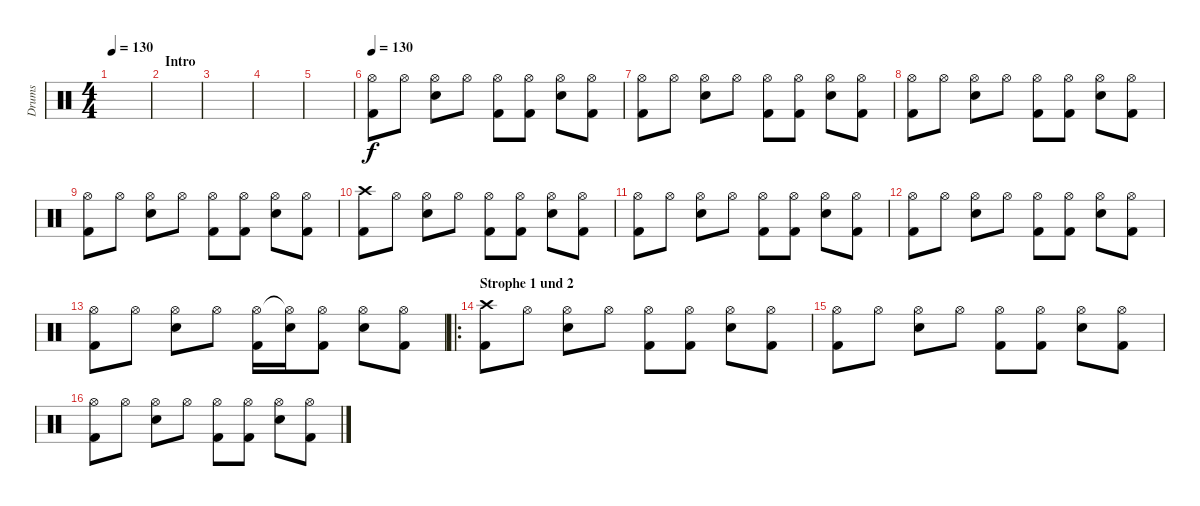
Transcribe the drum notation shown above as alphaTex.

\track ("Drums" "Drums") {instrument percussion}
\staff {score}
\articulation defaults
\ts (4 4)
\tempo 130
\tempo 70
\tempo 130
\clef neutral
\ks c
|
\section ("" "Intro")
|
|
|
|
\tempo 130
("Hi-Hat (open)" "Kick (hit) 2").8 "Hi-Hat (open)".8 ("Hi-Hat (open)" "Electric Snare (hit)").8 "Hi-Hat (open)".8 ("Hi-Hat (open)" "Kick (hit) 2").8 ("Hi-Hat (open)" "Kick (hit) 2").8 ("Hi-Hat (open)" "Electric Snare (hit)").8 ("Hi-Hat (open)" "Kick (hit) 2").8 |
("Hi-Hat (open)" "Kick (hit) 2").8 "Hi-Hat (open)".8 ("Hi-Hat (open)" "Electric Snare (hit)").8 "Hi-Hat (open)".8 ("Hi-Hat (open)" "Kick (hit) 2").8 ("Hi-Hat (open)" "Kick (hit) 2").8 ("Hi-Hat (open)" "Electric Snare (hit)").8 ("Hi-Hat (open)" "Kick (hit) 2").8 |
("Hi-Hat (open)" "Kick (hit) 2").8 "Hi-Hat (open)".8 ("Hi-Hat (open)" "Electric Snare (hit)").8 "Hi-Hat (open)".8 ("Hi-Hat (open)" "Kick (hit) 2").8 ("Hi-Hat (open)" "Kick (hit) 2").8 ("Hi-Hat (open)" "Electric Snare (hit)").8 ("Hi-Hat (open)" "Kick (hit) 2").8 |
("Hi-Hat (open)" "Kick (hit) 2").8 "Hi-Hat (open)".8 ("Hi-Hat (open)" "Electric Snare (hit)").8 "Hi-Hat (open)".8 ("Hi-Hat (open)" "Kick (hit) 2").8 ("Hi-Hat (open)" "Kick (hit) 2").8 ("Hi-Hat (open)" "Electric Snare (hit)").8 ("Hi-Hat (open)" "Kick (hit) 2").8 |
("Crash high (hit)" "Kick (hit) 2").8 "Hi-Hat (open)".8 ("Hi-Hat (open)" "Electric Snare (hit)").8 "Hi-Hat (open)".8 ("Hi-Hat (open)" "Kick (hit) 2").8 ("Hi-Hat (open)" "Kick (hit) 2").8 ("Hi-Hat (open)" "Electric Snare (hit)").8 ("Hi-Hat (open)" "Kick (hit) 2").8 |
("Hi-Hat (open)" "Kick (hit) 2").8 "Hi-Hat (open)".8 ("Hi-Hat (open)" "Electric Snare (hit)").8 "Hi-Hat (open)".8 ("Hi-Hat (open)" "Kick (hit) 2").8 ("Hi-Hat (open)" "Kick (hit) 2").8 ("Hi-Hat (open)" "Electric Snare (hit)").8 ("Hi-Hat (open)" "Kick (hit) 2").8 |
("Hi-Hat (open)" "Kick (hit) 2").8 "Hi-Hat (open)".8 ("Hi-Hat (open)" "Electric Snare (hit)").8 "Hi-Hat (open)".8 ("Hi-Hat (open)" "Kick (hit) 2").8 ("Hi-Hat (open)" "Kick (hit) 2").8 ("Hi-Hat (open)" "Electric Snare (hit)").8 ("Hi-Hat (open)" "Kick (hit) 2").8 |
("Hi-Hat (open)" "Kick (hit) 2").8 "Hi-Hat (open)".8 ("Hi-Hat (open)" "Electric Snare (hit)").8 "Hi-Hat (open)".8 ("Hi-Hat (open)" "Kick (hit) 2").16 ("Hi-Hat (open)"{t} "Electric Snare (hit)").16 ("Hi-Hat (open)" "Kick (hit) 2").8 ("Hi-Hat (open)" "Electric Snare (hit)").8 ("Hi-Hat (open)" "Kick (hit) 2").8 |
\ro
\section ("" "Strophe 1 und 2")
("Crash high (hit)" "Kick (hit) 2").8 "Hi-Hat (open)".8 ("Hi-Hat (open)" "Electric Snare (hit)").8 "Hi-Hat (open)".8 ("Hi-Hat (open)" "Kick (hit) 2").8 ("Hi-Hat (open)" "Kick (hit) 2").8 ("Hi-Hat (open)" "Electric Snare (hit)").8 ("Hi-Hat (open)" "Kick (hit) 2").8 |
("Hi-Hat (open)" "Kick (hit) 2").8 "Hi-Hat (open)".8 ("Hi-Hat (open)" "Electric Snare (hit)").8 "Hi-Hat (open)".8 ("Hi-Hat (open)" "Kick (hit) 2").8 ("Hi-Hat (open)" "Kick (hit) 2").8 ("Hi-Hat (open)" "Electric Snare (hit)").8 ("Hi-Hat (open)" "Kick (hit) 2").8 |
("Hi-Hat (open)" "Kick (hit) 2").8 "Hi-Hat (open)".8 ("Hi-Hat (open)" "Electric Snare (hit)").8 "Hi-Hat (open)".8 ("Hi-Hat (open)" "Kick (hit) 2").8 ("Hi-Hat (open)" "Kick (hit) 2").8 ("Hi-Hat (open)" "Electric Snare (hit)").8 ("Hi-Hat (open)" "Kick (hit) 2").8
